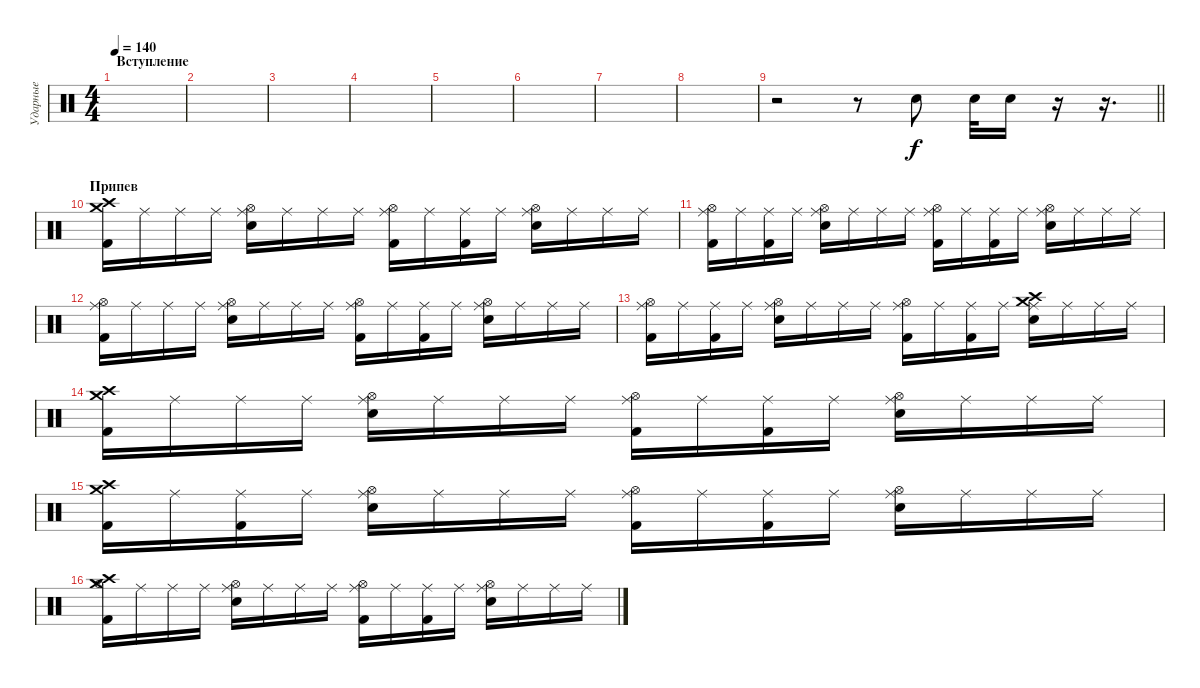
\track ("Ударные" "Ударные") {instrument percussion}
\staff {score}
\articulation defaults
\ts (4 4)
\section ("" "Вступление")
\tempo 140
\clef neutral
\ks c
|
|
|
|
|
|
|
|
\barLineRight lightlight
r.2 r.8 "Snare (hit) 2".8 "Snare (hit) 2".32 "Snare (hit) 2".16 r.16 r.16{d} |
\section ("" "Припев")
("Crash medium (hit)" "Crash high (hit)" "Kick (hit) 2").16 "Ride (middle)".16 "Ride (middle)".16 "Ride (middle)".16 ("Ride (middle)" "Hi-Hat (open)" "Snare (hit) 2").16 "Ride (middle)".16 "Ride (middle)".16 "Ride (middle)".16 ("Ride (middle)" "Hi-Hat (open)" "Kick (hit) 2").16 "Ride (middle)".16 ("Ride (middle)" "Kick (hit) 2").16 "Ride (middle)".16 ("Ride (middle)" "Hi-Hat (open)" "Snare (hit) 2").16 "Ride (middle)".16 "Ride (middle)".16 "Ride (middle)".16 |
("Ride (middle)" "Hi-Hat (open)" "Kick (hit) 2").16 "Ride (middle)".16 ("Ride (middle)" "Kick (hit) 2").16 "Ride (middle)".16 ("Ride (middle)" "Hi-Hat (open)" "Snare (hit) 2").16 "Ride (middle)".16 "Ride (middle)".16 "Ride (middle)".16 ("Ride (middle)" "Hi-Hat (open)" "Kick (hit) 2").16 "Ride (middle)".16 ("Ride (middle)" "Kick (hit) 2").16 "Ride (middle)".16 ("Ride (middle)" "Hi-Hat (open)" "Snare (hit) 2").16 "Ride (middle)".16 "Ride (middle)".16 "Ride (middle)".16 |
("Ride (middle)" "Hi-Hat (open)" "Kick (hit) 2").16 "Ride (middle)".16 "Ride (middle)".16 "Ride (middle)".16 ("Ride (middle)" "Hi-Hat (open)" "Snare (hit) 2").16 "Ride (middle)".16 "Ride (middle)".16 "Ride (middle)".16 ("Ride (middle)" "Hi-Hat (open)" "Kick (hit) 2").16 "Ride (middle)".16 ("Ride (middle)" "Kick (hit) 2").16 "Ride (middle)".16 ("Ride (middle)" "Hi-Hat (open)" "Snare (hit) 2").16 "Ride (middle)".16 "Ride (middle)".16 "Ride (middle)".16 |
("Ride (middle)" "Hi-Hat (open)" "Kick (hit) 2").16 "Ride (middle)".16 ("Ride (middle)" "Kick (hit) 2").16 "Ride (middle)".16 ("Ride (middle)" "Hi-Hat (open)" "Snare (hit) 2").16 "Ride (middle)".16 "Ride (middle)".16 "Ride (middle)".16 ("Ride (middle)" "Hi-Hat (open)" "Kick (hit) 2").16 "Ride (middle)".16 ("Ride (middle)" "Kick (hit) 2").16 "Ride (middle)".16 ("Crash medium (hit)" "Crash high (hit)" "Ride (middle)" "Snare (hit) 2").16 "Ride (middle)".16 "Ride (middle)".16 "Ride (middle)".16 |
("Crash medium (hit)" "Crash high (hit)" "Kick (hit) 2").16 "Ride (middle)".16 "Ride (middle)".16 "Ride (middle)".16 ("Ride (middle)" "Hi-Hat (open)" "Snare (hit) 2").16 "Ride (middle)".16 "Ride (middle)".16 "Ride (middle)".16 ("Ride (middle)" "Hi-Hat (open)" "Kick (hit) 2").16 "Ride (middle)".16 ("Ride (middle)" "Kick (hit) 2").16 "Ride (middle)".16 ("Ride (middle)" "Hi-Hat (open)" "Snare (hit) 2").16 "Ride (middle)".16 "Ride (middle)".16 "Ride (middle)".16 |
("Crash medium (hit)" "Crash high (hit)" "Kick (hit) 2").16 "Ride (middle)".16 ("Ride (middle)" "Kick (hit) 2").16 "Ride (middle)".16 ("Ride (middle)" "Hi-Hat (open)" "Snare (hit) 2").16 "Ride (middle)".16 "Ride (middle)".16 "Ride (middle)".16 ("Ride (middle)" "Hi-Hat (open)" "Kick (hit) 2").16 "Ride (middle)".16 ("Ride (middle)" "Kick (hit) 2").16 "Ride (middle)".16 ("Ride (middle)" "Hi-Hat (open)" "Snare (hit) 2").16 "Ride (middle)".16 "Ride (middle)".16 "Ride (middle)".16 |
("Crash medium (hit)" "Crash high (hit)" "Hi-Hat (open)" "Kick (hit) 2").16 "Ride (middle)".16 "Ride (middle)".16 "Ride (middle)".16 ("Ride (middle)" "Hi-Hat (open)" "Snare (hit) 2").16 "Ride (middle)".16 "Ride (middle)".16 "Ride (middle)".16 ("Ride (middle)" "Hi-Hat (open)" "Kick (hit) 2").16 "Ride (middle)".16 ("Ride (middle)" "Kick (hit) 2").16 "Ride (middle)".16 ("Ride (middle)" "Hi-Hat (open)" "Snare (hit) 2").16 "Ride (middle)".16 "Ride (middle)".16 "Ride (middle)".16
